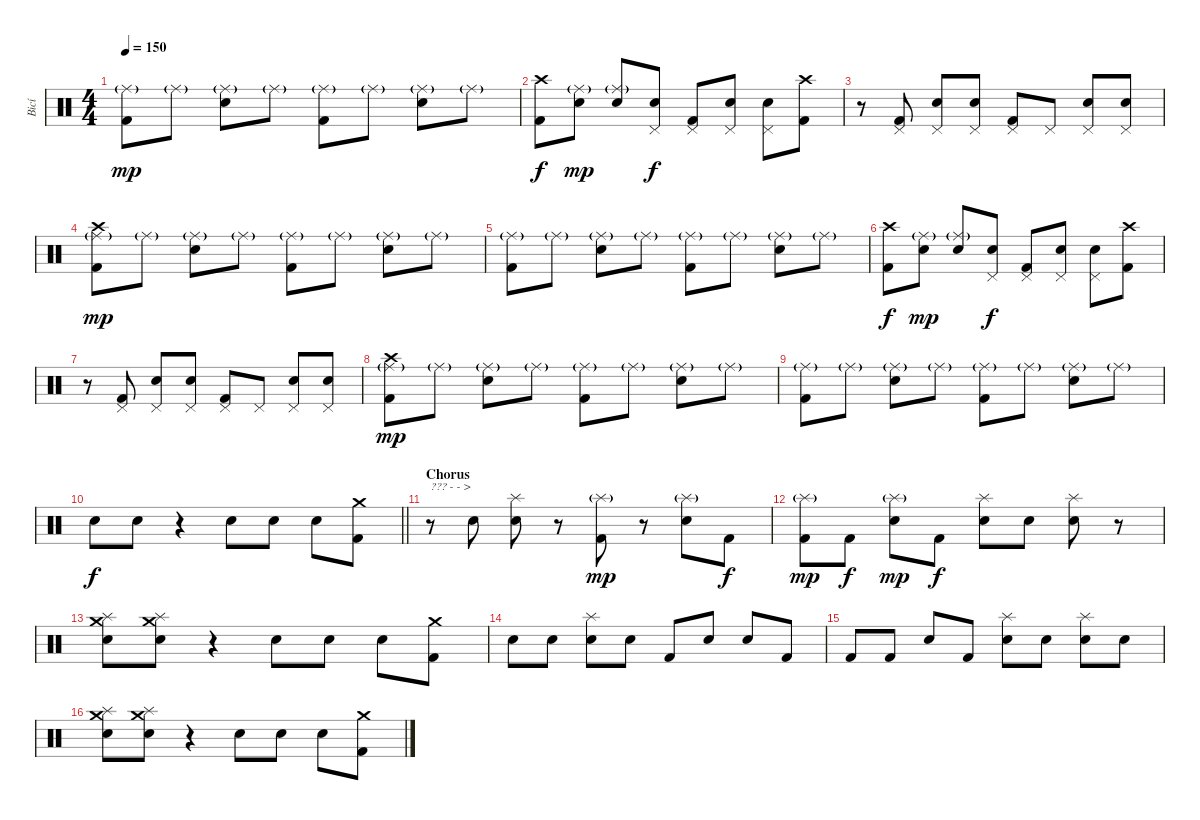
\track ("Bicí" "Bicí") {instrument percussion}
\staff {score}
\articulation defaults
\ts (4 4)
\tempo 150
\clef neutral
\ks c
("Ride (middle)"{g} "Kick (hit) 2").8{dy mp} "Ride (middle)"{g}.8 ("Ride (middle)"{g} "Electric Snare (hit)").8 "Ride (middle)"{g}.8 ("Ride (middle)"{g} "Kick (hit) 2").8 "Ride (middle)"{g}.8 ("Ride (middle)"{g} "Electric Snare (hit)").8 "Ride (middle)"{g}.8 |
("Crash high (hit)" "Kick (hit) 2").8{dy f} ("Ride (middle)"{g} "Snare (hit)").8{dy mp} ("Ride (middle)"{g} "Electric Snare (hit)").8 ("Pedal Hi-Hat (hit)" "Snare (hit)").8{dy f} ("Pedal Hi-Hat (hit)" "Kick (hit) 2").8 ("Pedal Hi-Hat (hit)" "Snare (hit)").8 ("Pedal Hi-Hat (hit)" "Electric Snare (hit)").8 ("Crash high (hit)" "Kick (hit) 2").8 |
r.8 ("Pedal Hi-Hat (hit)" "Kick (hit) 2").8 ("Pedal Hi-Hat (hit)" "Electric Snare (hit)").8 ("Pedal Hi-Hat (hit)" "Electric Snare (hit)").8 ("Pedal Hi-Hat (hit)" "Kick (hit) 2").8 "Pedal Hi-Hat (hit)".8 ("Pedal Hi-Hat (hit)" "Electric Snare (hit)").8 ("Pedal Hi-Hat (hit)" "Snare (hit)").8 |
("Crash high (hit)" "Ride (middle)"{g} "Kick (hit) 2").8{dy mp} "Ride (middle)"{g}.8 ("Ride (middle)"{g} "Electric Snare (hit)").8 "Ride (middle)"{g}.8 ("Ride (middle)"{g} "Kick (hit) 2").8 "Ride (middle)"{g}.8 ("Ride (middle)"{g} "Electric Snare (hit)").8 "Ride (middle)"{g}.8 |
("Ride (middle)"{g} "Kick (hit) 2").8 "Ride (middle)"{g}.8 ("Ride (middle)"{g} "Electric Snare (hit)").8 "Ride (middle)"{g}.8 ("Ride (middle)"{g} "Kick (hit) 2").8 "Ride (middle)"{g}.8 ("Ride (middle)"{g} "Electric Snare (hit)").8 "Ride (middle)"{g}.8 |
("Crash high (hit)" "Kick (hit) 2").8{dy f} ("Ride (middle)"{g} "Snare (hit)").8{dy mp} ("Ride (middle)"{g} "Electric Snare (hit)").8 ("Pedal Hi-Hat (hit)" "Snare (hit)").8{dy f} ("Pedal Hi-Hat (hit)" "Kick (hit) 2").8 ("Pedal Hi-Hat (hit)" "Snare (hit)").8 ("Pedal Hi-Hat (hit)" "Electric Snare (hit)").8 ("Crash high (hit)" "Kick (hit) 2").8 |
r.8 ("Pedal Hi-Hat (hit)" "Kick (hit) 2").8 ("Pedal Hi-Hat (hit)" "Electric Snare (hit)").8 ("Pedal Hi-Hat (hit)" "Electric Snare (hit)").8 ("Pedal Hi-Hat (hit)" "Kick (hit) 2").8 "Pedal Hi-Hat (hit)".8 ("Pedal Hi-Hat (hit)" "Electric Snare (hit)").8 ("Pedal Hi-Hat (hit)" "Snare (hit)").8 |
("Crash high (hit)" "Ride (middle)"{g} "Kick (hit) 2").8{dy mp} "Ride (middle)"{g}.8 ("Ride (middle)"{g} "Electric Snare (hit)").8 "Ride (middle)"{g}.8 ("Ride (middle)"{g} "Kick (hit) 2").8 "Ride (middle)"{g}.8 ("Ride (middle)"{g} "Electric Snare (hit)").8 "Ride (middle)"{g}.8 |
("Ride (middle)"{g} "Kick (hit) 2").8 "Ride (middle)"{g}.8 ("Ride (middle)"{g} "Electric Snare (hit)").8 "Ride (middle)"{g}.8 ("Ride (middle)"{g} "Kick (hit) 2").8 "Ride (middle)"{g}.8 ("Ride (middle)"{g} "Electric Snare (hit)").8 "Ride (middle)"{g}.8 |
\barLineRight lightlight "Electric Snare (hit)".8{dy f} "Electric Snare (hit)".8
r.4 "Electric Snare (hit)".8 "Electric Snare (hit)".8 "Electric Snare (hit)".8 ("Crash medium (hit)" "Kick (hit) 2").8 |
\section ("" "Chorus")
r.8{txt "??? - - >"} "Snare (hit)".8 ("Splash (hit)" "Electric Snare (hit)").8 r.8 ("Splash (hit)"{g} "Kick (hit) 2").8{dy mp} r.8 ("Splash (hit)"{g} "Electric Snare (hit)").8 "Kick (hit) 2".8{dy f} |
("Splash (hit)"{g} "Kick (hit) 2").8{dy mp} "Kick (hit) 2".8{dy f} ("Splash (hit)"{g} "Electric Snare (hit)").8{dy mp} "Kick (hit) 2".8{dy f} ("Splash (hit)" "Electric Snare (hit)").8 "Snare (hit)".8 ("Splash (hit)" "Electric Snare (hit)").8 r.8 |
("Crash medium (hit)" "Splash (hit)" "Electric Snare (hit)").8 ("Crash medium (hit)" "Splash (hit)" "Electric Snare (hit)").8 r.4 "Electric Snare (hit)".8 "Electric Snare (hit)".8 "Electric Snare (hit)".8 ("Crash medium (hit)" "Kick (hit) 2").8 |
"Snare (hit)".8 "Snare (hit)".8 ("Splash (hit)" "Electric Snare (hit)").8 "Snare (hit)".8 "Kick (hit) 2".8 "Snare (hit)".8 "Electric Snare (hit)".8 "Kick (hit) 2".8 |
"Kick (hit) 2".8 "Kick (hit) 2".8 "Electric Snare (hit)".8 "Kick (hit) 2".8 ("Splash (hit)" "Electric Snare (hit)").8 "Snare (hit)".8 ("Splash (hit)" "Electric Snare (hit)").8 "Snare (hit)".8 |
("Crash medium (hit)" "Splash (hit)" "Electric Snare (hit)").8 ("Crash medium (hit)" "Splash (hit)" "Electric Snare (hit)").8 r.4 "Electric Snare (hit)".8 "Electric Snare (hit)".8 "Electric Snare (hit)".8 ("Crash medium (hit)" "Kick (hit) 2").8
